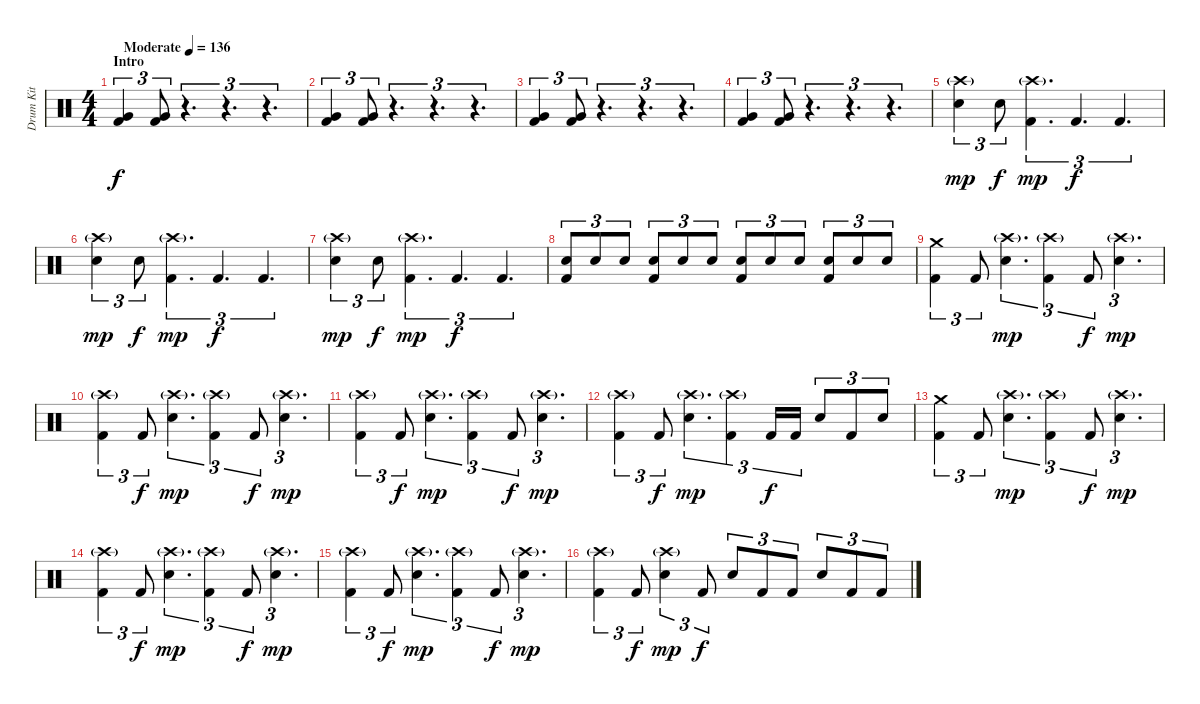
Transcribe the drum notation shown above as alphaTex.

\track ("Drum Kit" "Drum Kit") {instrument percussion}
\staff {score}
\articulation defaults
\ts (4 4)
\section ("" "Intro")
\tempo (136 "Moderate")
\clef neutral
\ks c
("Very Low Tom (hit)" "Kick (hit) 2").4{tu (3 2) dy f} ("Very Low Tom (hit)" "Kick (hit) 2").8{tu (3 2)} r.4{d tu (3 2)} r.4{d tu (3 2)} r.4{d tu (3 2)} |
("Very Low Tom (hit)" "Kick (hit) 2").4{tu (3 2)} ("Very Low Tom (hit)" "Kick (hit) 2").8{tu (3 2)} r.4{d tu (3 2)} r.4{d tu (3 2)} r.4{d tu (3 2)} |
("Very Low Tom (hit)" "Kick (hit) 2").4{tu (3 2)} ("Very Low Tom (hit)" "Kick (hit) 2").8{tu (3 2)} r.4{d tu (3 2)} r.4{d tu (3 2)} r.4{d tu (3 2)} |
("Very Low Tom (hit)" "Kick (hit) 2").4{tu (3 2)} ("Very Low Tom (hit)" "Kick (hit) 2").8{tu (3 2)} r.4{d tu (3 2)} r.4{d tu (3 2)} r.4{d tu (3 2)} |
("Crash high (hit)"{g} "Electric Snare (hit)").4{tu (3 2) dy mp} "Electric Snare (hit)".8{tu (3 2) dy f} ("Crash high (hit)"{g} "Kick (hit) 2").4{d tu (3 2) dy mp} "Kick (hit) 2".4{d tu (3 2) dy f} "Kick (hit) 2".4{d tu (3 2)} |
("Crash high (hit)"{g} "Electric Snare (hit)").4{tu (3 2) dy mp} "Electric Snare (hit)".8{tu (3 2) dy f} ("Crash high (hit)"{g} "Kick (hit) 2").4{d tu (3 2) dy mp} "Kick (hit) 2".4{d tu (3 2) dy f} "Kick (hit) 2".4{d tu (3 2)} |
("Crash high (hit)"{g} "Electric Snare (hit)").4{tu (3 2) dy mp} "Electric Snare (hit)".8{tu (3 2) dy f} ("Crash high (hit)"{g} "Kick (hit) 2").4{d tu (3 2) dy mp} "Kick (hit) 2".4{d tu (3 2) dy f} "Kick (hit) 2".4{d tu (3 2)} |
("Electric Snare (hit)" "Kick (hit) 2").8{tu (3 2)} "Electric Snare (hit)".8{tu (3 2)} "Electric Snare (hit)".8{tu (3 2)} ("Electric Snare (hit)" "Kick (hit) 2").8{tu (3 2)} "Electric Snare (hit)".8{tu (3 2)} "Electric Snare (hit)".8{tu (3 2)} ("Electric Snare (hit)" "Kick (hit) 2").8{tu (3 2)} "Electric Snare (hit)".8{tu (3 2)} "Electric Snare (hit)".8{tu (3 2)} ("Electric Snare (hit)" "Kick (hit) 2").8{tu (3 2)} "Electric Snare (hit)".8{tu (3 2)} "Electric Snare (hit)".8{tu (3 2)} |
("Crash medium (hit)" "Kick (hit) 2").4{tu (3 2)} "Kick (hit) 2".8{tu (3 2)} ("Crash high (hit)"{g} "Electric Snare (hit)").4{d tu (3 2) dy mp} ("Crash high (hit)"{g} "Kick (hit) 2").4{tu (3 2)} "Kick (hit) 2".8{tu (3 2) dy f} ("Crash high (hit)"{g} "Electric Snare (hit)").4{d tu (3 2) dy mp} |
("Crash high (hit)"{g} "Kick (hit) 2").4{tu (3 2)} "Kick (hit) 2".8{tu (3 2) dy f} ("Crash high (hit)"{g} "Electric Snare (hit)").4{d tu (3 2) dy mp} ("Crash high (hit)"{g} "Kick (hit) 2").4{tu (3 2)} "Kick (hit) 2".8{tu (3 2) dy f} ("Crash high (hit)"{g} "Electric Snare (hit)").4{d tu (3 2) dy mp} |
("Crash high (hit)"{g} "Kick (hit) 2").4{tu (3 2)} "Kick (hit) 2".8{tu (3 2) dy f} ("Crash high (hit)"{g} "Electric Snare (hit)").4{d tu (3 2) dy mp} ("Crash high (hit)"{g} "Kick (hit) 2").4{tu (3 2)} "Kick (hit) 2".8{tu (3 2) dy f} ("Crash high (hit)"{g} "Electric Snare (hit)").4{d tu (3 2) dy mp} |
("Crash high (hit)"{g} "Kick (hit) 2").4{tu (3 2)} "Kick (hit) 2".8{tu (3 2) dy f} ("Crash high (hit)"{g} "Electric Snare (hit)").4{d tu (3 2) dy mp} ("Crash high (hit)"{g} "Kick (hit) 2").4{tu (3 2)} "Kick (hit) 2".16{tu (3 2) dy f} "Kick (hit) 2".16{tu (3 2)} "Electric Snare (hit)".8{tu (3 2)} "Kick (hit) 2".8{tu (3 2)} "Electric Snare (hit)".8{tu (3 2)} |
("Crash medium (hit)" "Kick (hit) 2").4{tu (3 2)} "Kick (hit) 2".8{tu (3 2)} ("Crash high (hit)"{g} "Electric Snare (hit)").4{d tu (3 2) dy mp} ("Crash high (hit)"{g} "Kick (hit) 2").4{tu (3 2)} "Kick (hit) 2".8{tu (3 2) dy f} ("Crash high (hit)"{g} "Electric Snare (hit)").4{d tu (3 2) dy mp} |
("Crash high (hit)"{g} "Kick (hit) 2").4{tu (3 2)} "Kick (hit) 2".8{tu (3 2) dy f} ("Crash high (hit)"{g} "Electric Snare (hit)").4{d tu (3 2) dy mp} ("Crash high (hit)"{g} "Kick (hit) 2").4{tu (3 2)} "Kick (hit) 2".8{tu (3 2) dy f} ("Crash high (hit)"{g} "Electric Snare (hit)").4{d tu (3 2) dy mp} |
("Crash high (hit)"{g} "Kick (hit) 2").4{tu (3 2)} "Kick (hit) 2".8{tu (3 2) dy f} ("Crash high (hit)"{g} "Electric Snare (hit)").4{d tu (3 2) dy mp} ("Crash high (hit)"{g} "Kick (hit) 2").4{tu (3 2)} "Kick (hit) 2".8{tu (3 2) dy f} ("Crash high (hit)"{g} "Electric Snare (hit)").4{d tu (3 2) dy mp} |
("Crash high (hit)"{g} "Kick (hit) 2").4{tu (3 2)} "Kick (hit) 2".8{tu (3 2) dy f} ("Crash high (hit)"{g} "Electric Snare (hit)").4{tu (3 2) dy mp} "Kick (hit) 2".8{tu (3 2) dy f} "Electric Snare (hit)".8{tu (3 2)} "Kick (hit) 2".8{tu (3 2)} "Kick (hit) 2".8{tu (3 2)} "Electric Snare (hit)".8{tu (3 2)} "Kick (hit) 2".8{tu (3 2)} "Kick (hit) 2".8{tu (3 2)}
